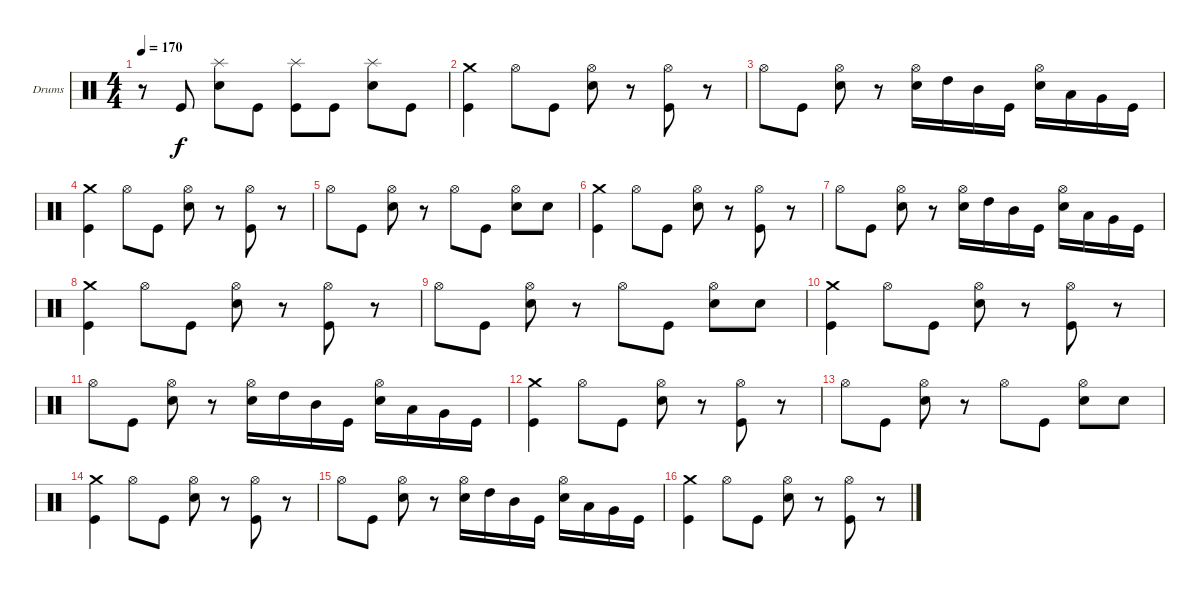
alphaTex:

\bracketExtendMode groupsimilarinstruments
\firstSystemTrackNameOrientation horizontal
\otherSystemsTrackNameOrientation horizontal
\track ("Drumkit" "Drums") {instrument percussion}
\staff {score}
\articulation defaults
\ts (4 4)
\tempo 170
\clef neutral
\ks c
r.8{dy f} "Kick (hit)".8 ("Splash (hit)" "Snare (hit) 2").8 "Kick (hit)".8 ("Splash (hit)" "Kick (hit)").8 "Kick (hit)".8 ("Splash (hit)" "Snare (hit) 2").8 "Kick (hit)".8 |
("Crash medium (hit)" "Kick (hit)").4 "Hi-Hat (open)".8 "Kick (hit)".8 ("Hi-Hat (open)" "Snare (hit) 2").8 r.8 ("Hi-Hat (open)" "Kick (hit)").8 r.8 |
"Hi-Hat (open)".8 "Kick (hit)".8 ("Hi-Hat (open)" "Snare (hit) 2").8 r.8 ("Hi-Hat (open)" "Snare (hit) 2").16 "High Tom (hit)".16 "Mid Tom (hit)".16 "Kick (hit)".16 ("Hi-Hat (open)" "Snare (hit) 2").16 "Low Tom (hit)".16 "Very Low Tom (hit)".16 "Kick (hit)".16 |
("Crash medium (hit)" "Kick (hit)").4 "Hi-Hat (open)".8 "Kick (hit)".8 ("Hi-Hat (open)" "Snare (hit) 2").8 r.8 ("Hi-Hat (open)" "Kick (hit)").8 r.8 |
"Hi-Hat (open)".8 "Kick (hit)".8 ("Hi-Hat (open)" "Snare (hit) 2").8 r.8 "Hi-Hat (open)".8 "Kick (hit)".8 ("Hi-Hat (open)" "Snare (hit) 2").8 "Snare (hit) 2".8 |
("Crash medium (hit)" "Kick (hit)").4 "Hi-Hat (open)".8 "Kick (hit)".8 ("Hi-Hat (open)" "Snare (hit) 2").8 r.8 ("Hi-Hat (open)" "Kick (hit)").8 r.8 |
"Hi-Hat (open)".8 "Kick (hit)".8 ("Hi-Hat (open)" "Snare (hit) 2").8 r.8 ("Hi-Hat (open)" "Snare (hit) 2").16 "High Tom (hit)".16 "Mid Tom (hit)".16 "Kick (hit)".16 ("Hi-Hat (open)" "Snare (hit) 2").16 "Low Tom (hit)".16 "Very Low Tom (hit)".16 "Kick (hit)".16 |
("Crash medium (hit)" "Kick (hit)").4 "Hi-Hat (open)".8 "Kick (hit)".8 ("Hi-Hat (open)" "Snare (hit) 2").8 r.8 ("Hi-Hat (open)" "Kick (hit)").8 r.8 |
"Hi-Hat (open)".8 "Kick (hit)".8 ("Hi-Hat (open)" "Snare (hit) 2").8 r.8 "Hi-Hat (open)".8 "Kick (hit)".8 ("Hi-Hat (open)" "Snare (hit) 2").8 "Snare (hit) 2".8 |
("Crash medium (hit)" "Kick (hit)").4 "Hi-Hat (open)".8 "Kick (hit)".8 ("Hi-Hat (open)" "Snare (hit) 2").8 r.8 ("Hi-Hat (open)" "Kick (hit)").8 r.8 |
"Hi-Hat (open)".8 "Kick (hit)".8 ("Hi-Hat (open)" "Snare (hit) 2").8 r.8 ("Hi-Hat (open)" "Snare (hit) 2").16 "High Tom (hit)".16 "Mid Tom (hit)".16 "Kick (hit)".16 ("Hi-Hat (open)" "Snare (hit) 2").16 "Low Tom (hit)".16 "Very Low Tom (hit)".16 "Kick (hit)".16 |
("Crash medium (hit)" "Kick (hit)").4 "Hi-Hat (open)".8 "Kick (hit)".8 ("Hi-Hat (open)" "Snare (hit) 2").8 r.8 ("Hi-Hat (open)" "Kick (hit)").8 r.8 |
"Hi-Hat (open)".8 "Kick (hit)".8 ("Hi-Hat (open)" "Snare (hit) 2").8 r.8 "Hi-Hat (open)".8 "Kick (hit)".8 ("Hi-Hat (open)" "Snare (hit) 2").8 "Snare (hit) 2".8 |
("Crash medium (hit)" "Kick (hit)").4 "Hi-Hat (open)".8 "Kick (hit)".8 ("Hi-Hat (open)" "Snare (hit) 2").8 r.8 ("Hi-Hat (open)" "Kick (hit)").8 r.8 |
"Hi-Hat (open)".8 "Kick (hit)".8 ("Hi-Hat (open)" "Snare (hit) 2").8 r.8 ("Hi-Hat (open)" "Snare (hit) 2").16 "High Tom (hit)".16 "Mid Tom (hit)".16 "Kick (hit)".16 ("Hi-Hat (open)" "Snare (hit) 2").16 "Low Tom (hit)".16 "Very Low Tom (hit)".16 "Kick (hit)".16 |
("Crash medium (hit)" "Kick (hit)").4 "Hi-Hat (open)".8 "Kick (hit)".8 ("Hi-Hat (open)" "Snare (hit) 2").8 r.8 ("Hi-Hat (open)" "Kick (hit)").8 r.8
